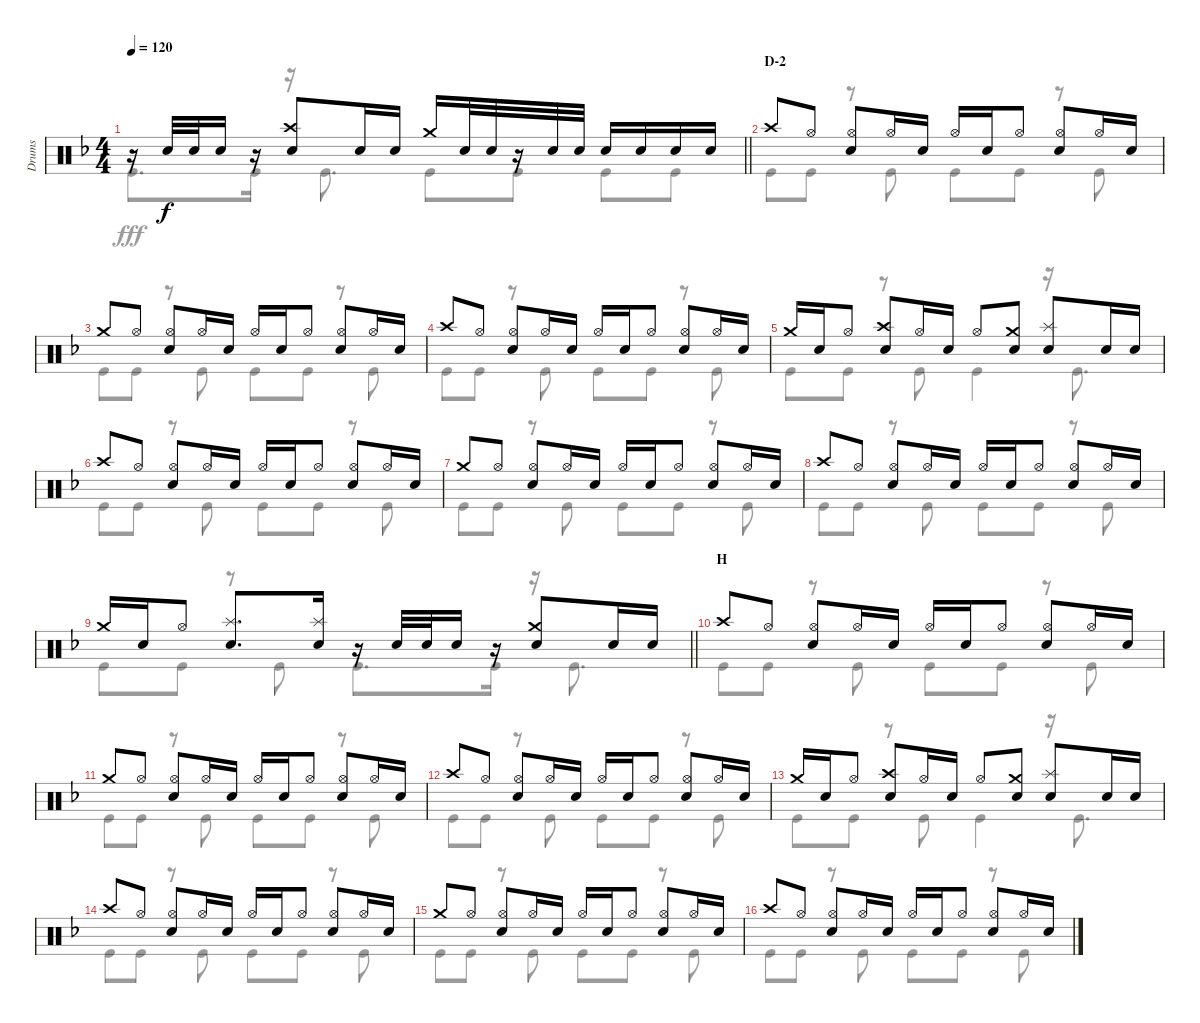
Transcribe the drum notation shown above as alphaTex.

\track ("Drums" "Drums") {instrument percussion}
\staff {score}
\articulation defaults
\voice
\ts (4 4)
\tempo 120
\clef neutral
\barLineRight lightlight
\ks f
r.16{dy f} "Snare (hit) 2".32 "Snare (hit) 2".32 "Snare (hit) 2".16 r.16 ("Crash high (hit)" "Snare (hit) 2").8 "Snare (hit) 2".16 "Snare (hit) 2".16 "Crash medium (hit)".16 "Snare (hit) 2".32 "Snare (hit) 2".32 r.16 "Snare (hit) 2".32 "Snare (hit) 2".32 "Snare (hit) 2".16 "Snare (hit) 2".16 "Snare (hit) 2".16 "Snare (hit) 2".16 |
\section ("" "D-2")
"Crash high (hit)".8 "Hi-Hat (open)".8 ("Hi-Hat (open)" "Snare (hit) 2").8 "Hi-Hat (open)".16 "Snare (hit) 2".16 "Hi-Hat (open)".16 "Snare (hit) 2".16 "Hi-Hat (open)".8 ("Hi-Hat (open)" "Snare (hit) 2").8 "Hi-Hat (open)".16 "Snare (hit) 2".16 |
"Crash medium (hit)".8 "Hi-Hat (open)".8 ("Hi-Hat (open)" "Snare (hit) 2").8 "Hi-Hat (open)".16 "Snare (hit) 2".16 "Hi-Hat (open)".16 "Snare (hit) 2".16 "Hi-Hat (open)".8 ("Hi-Hat (open)" "Snare (hit) 2").8 "Hi-Hat (open)".16 "Snare (hit) 2".16 |
"Crash high (hit)".8 "Hi-Hat (open)".8 ("Hi-Hat (open)" "Snare (hit) 2").8 "Hi-Hat (open)".16 "Snare (hit) 2".16 "Hi-Hat (open)".16 "Snare (hit) 2".16 "Hi-Hat (open)".8 ("Hi-Hat (open)" "Snare (hit) 2").8 "Hi-Hat (open)".16 "Snare (hit) 2".16 |
"Crash medium (hit)".16 "Snare (hit) 2".16 "Hi-Hat (open)".8 ("Crash high (hit)" "Snare (hit) 2").8 "Hi-Hat (open)".16 "Snare (hit) 2".16 "Hi-Hat (open)".8 ("Crash medium (hit)" "Snare (hit) 2").8 ("Splash (hit)" "Snare (hit) 2").8 "Snare (hit) 2".16 "Snare (hit) 2".16 |
"Crash high (hit)".8 "Hi-Hat (open)".8 ("Hi-Hat (open)" "Snare (hit) 2").8 "Hi-Hat (open)".16 "Snare (hit) 2".16 "Hi-Hat (open)".16 "Snare (hit) 2".16 "Hi-Hat (open)".8 ("Hi-Hat (open)" "Snare (hit) 2").8 "Hi-Hat (open)".16 "Snare (hit) 2".16 |
"Crash medium (hit)".8 "Hi-Hat (open)".8 ("Hi-Hat (open)" "Snare (hit) 2").8 "Hi-Hat (open)".16 "Snare (hit) 2".16 "Hi-Hat (open)".16 "Snare (hit) 2".16 "Hi-Hat (open)".8 ("Hi-Hat (open)" "Snare (hit) 2").8 "Hi-Hat (open)".16 "Snare (hit) 2".16 |
"Crash high (hit)".8 "Hi-Hat (open)".8 ("Hi-Hat (open)" "Snare (hit) 2").8 "Hi-Hat (open)".16 "Snare (hit) 2".16 "Hi-Hat (open)".16 "Snare (hit) 2".16 "Hi-Hat (open)".8 ("Hi-Hat (open)" "Snare (hit) 2").8 "Hi-Hat (open)".16 "Snare (hit) 2".16 |
\barLineRight lightlight "Crash medium (hit)".16 "Snare (hit) 2".16 "Hi-Hat (open)".8
("Splash (hit)" "Snare (hit) 2").8{d} ("Splash (hit)" "Snare (hit) 2").16 r.16 "Snare (hit) 2".32 "Snare (hit) 2".32 "Snare (hit) 2".16 r.16 ("Crash medium (hit)" "Snare (hit) 2").8 "Snare (hit) 2".16 "Snare (hit) 2".16 |
\section ("" "H")
"Crash high (hit)".8 "Hi-Hat (open)".8 ("Hi-Hat (open)" "Snare (hit) 2").8 "Hi-Hat (open)".16 "Snare (hit) 2".16 "Hi-Hat (open)".16 "Snare (hit) 2".16 "Hi-Hat (open)".8 ("Hi-Hat (open)" "Snare (hit) 2").8 "Hi-Hat (open)".16 "Snare (hit) 2".16 |
"Crash medium (hit)".8 "Hi-Hat (open)".8 ("Hi-Hat (open)" "Snare (hit) 2").8 "Hi-Hat (open)".16 "Snare (hit) 2".16 "Hi-Hat (open)".16 "Snare (hit) 2".16 "Hi-Hat (open)".8 ("Hi-Hat (open)" "Snare (hit) 2").8 "Hi-Hat (open)".16 "Snare (hit) 2".16 |
"Crash high (hit)".8 "Hi-Hat (open)".8 ("Hi-Hat (open)" "Snare (hit) 2").8 "Hi-Hat (open)".16 "Snare (hit) 2".16 "Hi-Hat (open)".16 "Snare (hit) 2".16 "Hi-Hat (open)".8 ("Hi-Hat (open)" "Snare (hit) 2").8 "Hi-Hat (open)".16 "Snare (hit) 2".16 |
"Crash medium (hit)".16 "Snare (hit) 2".16 "Hi-Hat (open)".8 ("Crash high (hit)" "Snare (hit) 2").8 "Hi-Hat (open)".16 "Snare (hit) 2".16 "Hi-Hat (open)".8 ("Crash medium (hit)" "Snare (hit) 2").8 ("Splash (hit)" "Snare (hit) 2").8 "Snare (hit) 2".16 "Snare (hit) 2".16 |
"Crash high (hit)".8 "Hi-Hat (open)".8 ("Hi-Hat (open)" "Snare (hit) 2").8 "Hi-Hat (open)".16 "Snare (hit) 2".16 "Hi-Hat (open)".16 "Snare (hit) 2".16 "Hi-Hat (open)".8 ("Hi-Hat (open)" "Snare (hit) 2").8 "Hi-Hat (open)".16 "Snare (hit) 2".16 |
"Crash medium (hit)".8 "Hi-Hat (open)".8 ("Hi-Hat (open)" "Snare (hit) 2").8 "Hi-Hat (open)".16 "Snare (hit) 2".16 "Hi-Hat (open)".16 "Snare (hit) 2".16 "Hi-Hat (open)".8 ("Hi-Hat (open)" "Snare (hit) 2").8 "Hi-Hat (open)".16 "Snare (hit) 2".16 |
"Crash high (hit)".8 "Hi-Hat (open)".8 ("Hi-Hat (open)" "Snare (hit) 2").8 "Hi-Hat (open)".16 "Snare (hit) 2".16 "Hi-Hat (open)".16 "Snare (hit) 2".16 "Hi-Hat (open)".8 ("Hi-Hat (open)" "Snare (hit) 2").8 "Hi-Hat (open)".16 "Snare (hit) 2".16
\voice
\clef neutral
\ottava regular
\simile none
\barLineRight lightlight
\ks f "Kick (hit)".8{d dy fff} "Kick (hit)".16
r.16 "Kick (hit)".8{d} "Kick (hit)".8 "Kick (hit)".8 "Kick (hit)".8 "Kick (hit)".8 |
"Kick (hit)".8 "Kick (hit)".8 r.8 "Kick (hit)".8 "Kick (hit)".8 "Kick (hit)".8 r.8 "Kick (hit)".8 |
"Kick (hit)".8 "Kick (hit)".8 r.8 "Kick (hit)".8 "Kick (hit)".8 "Kick (hit)".8 r.8 "Kick (hit)".8 |
"Kick (hit)".8 "Kick (hit)".8 r.8 "Kick (hit)".8 "Kick (hit)".8 "Kick (hit)".8 r.8 "Kick (hit)".8 |
"Kick (hit)".8 "Kick (hit)".8 r.8 "Kick (hit)".8 "Kick (hit)".4 r.16 "Kick (hit)".8{d} |
"Kick (hit)".8 "Kick (hit)".8 r.8 "Kick (hit)".8 "Kick (hit)".8 "Kick (hit)".8 r.8 "Kick (hit)".8 |
"Kick (hit)".8 "Kick (hit)".8 r.8 "Kick (hit)".8 "Kick (hit)".8 "Kick (hit)".8 r.8 "Kick (hit)".8 |
"Kick (hit)".8 "Kick (hit)".8 r.8 "Kick (hit)".8 "Kick (hit)".8 "Kick (hit)".8 r.8 "Kick (hit)".8 |
\barLineRight lightlight "Kick (hit)".8 "Kick (hit)".8
r.8 "Kick (hit)".8 "Kick (hit)".8{d} "Kick (hit)".16 r.16 "Kick (hit)".8{d} |
"Kick (hit)".8 "Kick (hit)".8 r.8 "Kick (hit)".8 "Kick (hit)".8 "Kick (hit)".8 r.8 "Kick (hit)".8 |
"Kick (hit)".8 "Kick (hit)".8 r.8 "Kick (hit)".8 "Kick (hit)".8 "Kick (hit)".8 r.8 "Kick (hit)".8 |
"Kick (hit)".8 "Kick (hit)".8 r.8 "Kick (hit)".8 "Kick (hit)".8 "Kick (hit)".8 r.8 "Kick (hit)".8 |
"Kick (hit)".8 "Kick (hit)".8 r.8 "Kick (hit)".8 "Kick (hit)".4 r.16 "Kick (hit)".8{d} |
"Kick (hit)".8 "Kick (hit)".8 r.8 "Kick (hit)".8 "Kick (hit)".8 "Kick (hit)".8 r.8 "Kick (hit)".8 |
"Kick (hit)".8 "Kick (hit)".8 r.8 "Kick (hit)".8 "Kick (hit)".8 "Kick (hit)".8 r.8 "Kick (hit)".8 |
"Kick (hit)".8 "Kick (hit)".8 r.8 "Kick (hit)".8 "Kick (hit)".8 "Kick (hit)".8 r.8 "Kick (hit)".8
